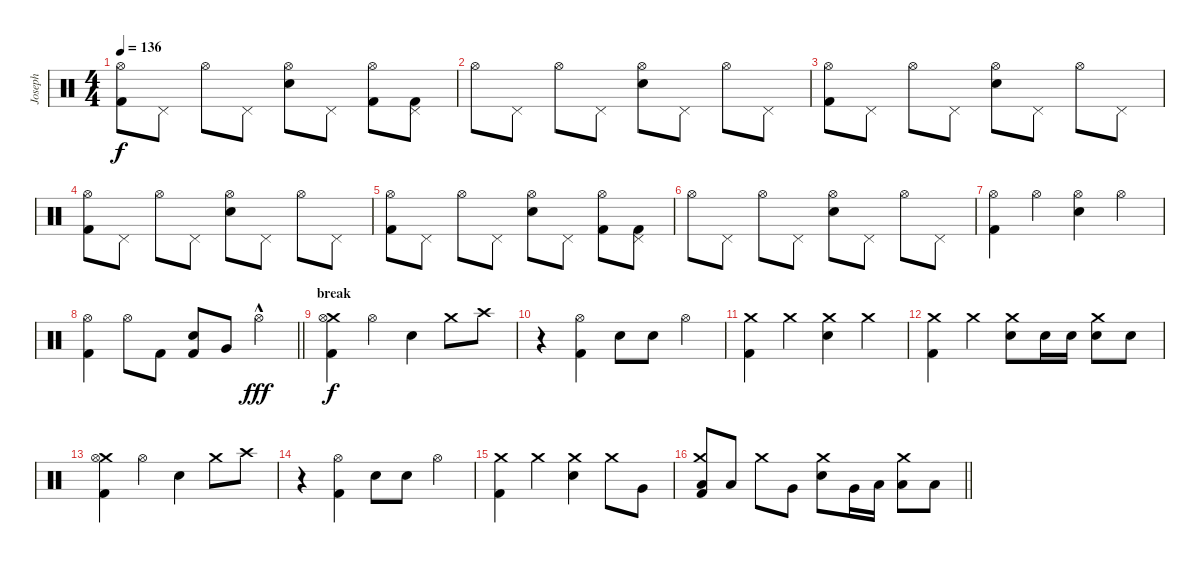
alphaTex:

\track ("Joseph" "Joseph") {instrument percussion}
\staff {score}
\articulation defaults
\ts (4 4)
\tempo 136
\clef neutral
\ks c
("Kick (hit) 2" "Hi-Hat (open)").8{dy f} "Pedal Hi-Hat (hit)".8 "Hi-Hat (open)".8 "Pedal Hi-Hat (hit)".8 ("Electric Snare (hit)" "Hi-Hat (open)").8 "Pedal Hi-Hat (hit)".8 ("Kick (hit) 2" "Hi-Hat (open)").8 ("Kick (hit) 2" "Pedal Hi-Hat (hit)").8 |
"Hi-Hat (open)".8 "Pedal Hi-Hat (hit)".8 "Hi-Hat (open)".8 "Pedal Hi-Hat (hit)".8 ("Electric Snare (hit)" "Hi-Hat (open)").8 "Pedal Hi-Hat (hit)".8 "Hi-Hat (open)".8 "Pedal Hi-Hat (hit)".8 |
("Kick (hit) 2" "Hi-Hat (open)").8 "Pedal Hi-Hat (hit)".8 "Hi-Hat (open)".8 "Pedal Hi-Hat (hit)".8 ("Electric Snare (hit)" "Hi-Hat (open)").8 "Pedal Hi-Hat (hit)".8 "Hi-Hat (open)".8 "Pedal Hi-Hat (hit)".8 |
("Kick (hit) 2" "Hi-Hat (open)").8 "Pedal Hi-Hat (hit)".8 "Hi-Hat (open)".8 "Pedal Hi-Hat (hit)".8 ("Electric Snare (hit)" "Hi-Hat (open)").8 "Pedal Hi-Hat (hit)".8 "Hi-Hat (open)".8 "Pedal Hi-Hat (hit)".8 |
("Kick (hit) 2" "Hi-Hat (open)").8 "Pedal Hi-Hat (hit)".8 "Hi-Hat (open)".8 "Pedal Hi-Hat (hit)".8 ("Electric Snare (hit)" "Hi-Hat (open)").8 "Pedal Hi-Hat (hit)".8 ("Kick (hit) 2" "Hi-Hat (open)").8 ("Kick (hit) 2" "Pedal Hi-Hat (hit)").8 |
"Hi-Hat (open)".8 "Pedal Hi-Hat (hit)".8 "Hi-Hat (open)".8 "Pedal Hi-Hat (hit)".8 ("Electric Snare (hit)" "Hi-Hat (open)").8 "Pedal Hi-Hat (hit)".8 "Hi-Hat (open)".8 "Pedal Hi-Hat (hit)".8 |
("Kick (hit) 2" "Hi-Hat (open)").4 "Hi-Hat (open)".4 ("Electric Snare (hit)" "Hi-Hat (open)").4 "Hi-Hat (open)".4 |
\barLineRight lightlight
("Kick (hit) 2" "Hi-Hat (open)").4 "Hi-Hat (open)".8 "Kick (hit) 2".8 ("Kick (hit) 2" "Electric Snare (hit)").8 "Very Low Tom (hit)".8 "Hi-Hat (open)"{hac}.4{dy fff} |
\section ("" "break")
("Crash medium (hit)" "Kick (hit) 2" "Hi-Hat (open)").4{dy f volume 13} "Hi-Hat (open)".4 "Electric Snare (hit)".4 "Crash medium (hit)".8 "Crash high (hit)".8 |
r.4 ("Kick (hit) 2" "Hi-Hat (open)").4 "Electric Snare (hit)".8 "Electric Snare (hit)".8 "Hi-Hat (open)".4 |
("Crash medium (hit)" "Kick (hit) 2").4 "Crash medium (hit)".4 ("Crash medium (hit)" "Electric Snare (hit)").4 "Crash medium (hit)".4 |
("Crash medium (hit)" "Kick (hit) 2").4 "Crash medium (hit)".4 ("Crash medium (hit)" "Electric Snare (hit)").8 "Electric Snare (hit)".16 "Electric Snare (hit)".16 ("Crash medium (hit)" "Electric Snare (hit)").8 "Electric Snare (hit)".8 |
("Crash medium (hit)" "Kick (hit) 2" "Hi-Hat (open)").4 "Hi-Hat (open)".4 "Electric Snare (hit)".4 "Crash medium (hit)".8 "Crash high (hit)".8 |
r.4 ("Kick (hit) 2" "Hi-Hat (open)").4 "Electric Snare (hit)".8 "Electric Snare (hit)".8 "Hi-Hat (open)".4 |
("Crash medium (hit)" "Kick (hit) 2").4 "Crash medium (hit)".4 ("Crash medium (hit)" "Electric Snare (hit)").4 "Crash medium (hit)".8 "Very Low Tom (hit)".8 |
\barLineRight lightlight
("Crash medium (hit)" "Kick (hit) 2" "Low Tom (hit)").8 "Low Tom (hit)".8 "Crash medium (hit)".8 "Very Low Tom (hit)".8 ("Crash medium (hit)" "Electric Snare (hit)").8 "Very Low Tom (hit)".16 "Low Tom (hit)".16 ("Crash medium (hit)" "Low Tom (hit)").8 "Low Tom (hit)".8
